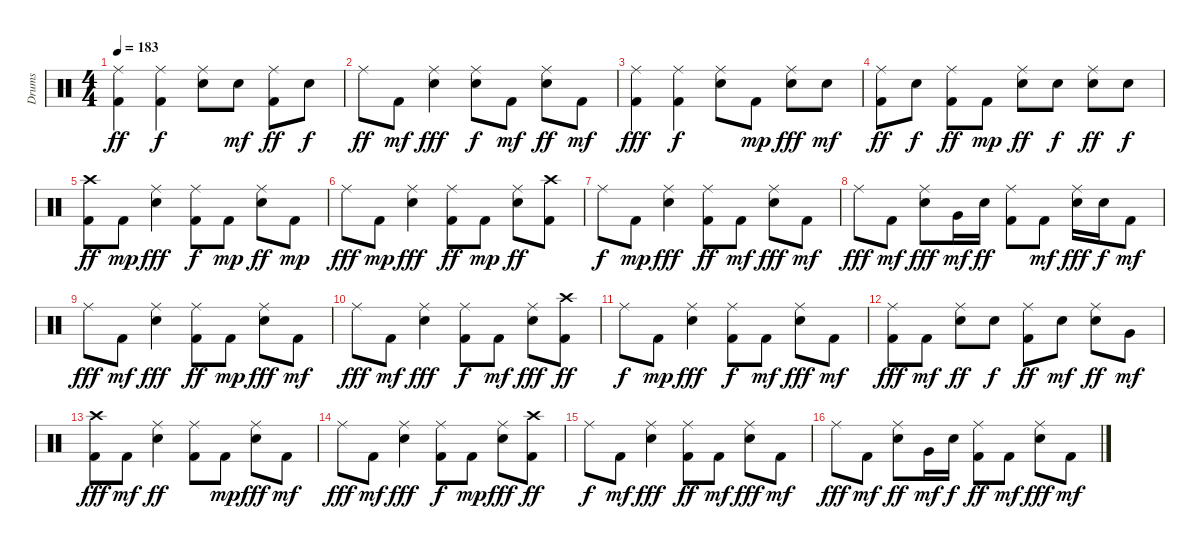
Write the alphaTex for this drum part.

\track ("Drums" "Drums") {instrument percussion}
\staff {score}
\articulation defaults
\ts (4 4)
\tempo 183
\clef neutral
\ks c
("Kick (hit) 2" "Ride (middle)").4{dy ff} ("Kick (hit) 2" "Ride (middle)").4{dy f} ("Snare (hit) 2" "Ride (middle)").8 "Snare (hit) 2".8{dy mf} ("Kick (hit) 2" "Ride (middle)").8{dy ff} "Snare (hit) 2".8{dy f} |
"Ride (middle)".8{dy ff} "Kick (hit) 2".8{dy mf} ("Snare (hit) 2" "Ride (middle)").4{dy fff} ("Snare (hit) 2" "Ride (middle)").8{dy f} "Kick (hit) 2".8{dy mf} ("Snare (hit) 2" "Ride (middle)").8{dy ff} "Kick (hit) 2".8{dy mf} |
("Kick (hit) 2" "Ride (middle)").4{dy fff} ("Kick (hit) 2" "Ride (middle)").4{dy f} ("Snare (hit) 2" "Ride (middle)").8 "Kick (hit) 2".8{dy mp} ("Snare (hit) 2" "Ride (middle)").8{dy fff} "Snare (hit) 2".8{dy mf} |
("Kick (hit) 2" "Ride (middle)").8{dy ff} "Snare (hit) 2".8{dy f} ("Kick (hit) 2" "Ride (middle)").8{dy ff} "Kick (hit) 2".8{dy mp} ("Snare (hit) 2" "Ride (middle)").8{dy ff} "Snare (hit) 2".8{dy f} ("Snare (hit) 2" "Ride (middle)").8{dy ff} "Snare (hit) 2".8{dy f} |
("Kick (hit) 2" "Crash high (hit)").8{dy ff} "Kick (hit) 2".8{dy mp} ("Snare (hit) 2" "Ride (middle)").4{dy fff} ("Kick (hit) 2" "Ride (middle)").8{dy f} "Kick (hit) 2".8{dy mp} ("Snare (hit) 2" "Ride (middle)").8{dy ff} "Kick (hit) 2".8{dy mp} |
"Ride (middle)".8{dy fff} "Kick (hit) 2".8{dy mp} ("Snare (hit) 2" "Ride (middle)").4{dy fff} ("Kick (hit) 2" "Ride (middle)").8{dy ff} "Kick (hit) 2".8{dy mp} ("Snare (hit) 2" "Ride (middle)").8{dy ff} ("Kick (hit) 2" "Crash high (hit)").8 |
"Ride (middle)".8{dy f} "Kick (hit) 2".8{dy mp} ("Snare (hit) 2" "Ride (middle)").4{dy fff} ("Kick (hit) 2" "Ride (middle)").8{dy ff} "Kick (hit) 2".8{dy mf} ("Snare (hit) 2" "Ride (middle)").8{dy fff} "Kick (hit) 2".8{dy mf} |
"Ride (middle)".8{dy fff} "Kick (hit) 2".8{dy mf} ("Snare (hit) 2" "Ride (middle)").8{dy fff} "Very Low Tom (hit)".16{dy mf} "Snare (hit) 2".16{dy ff} ("Kick (hit) 2" "Ride (middle)").8 "Kick (hit) 2".8{dy mf} ("Snare (hit) 2" "Ride (middle)").16{dy fff} "Snare (hit) 2".16{dy f} "Kick (hit) 2".8{dy mf} |
"Ride (middle)".8{dy fff} "Kick (hit) 2".8{dy mf} ("Snare (hit) 2" "Ride (middle)").4{dy fff} ("Kick (hit) 2" "Ride (middle)").8{dy ff} "Kick (hit) 2".8{dy mp} ("Snare (hit) 2" "Ride (middle)").8{dy fff} "Kick (hit) 2".8{dy mf} |
"Ride (middle)".8{dy fff} "Kick (hit) 2".8{dy mf} ("Snare (hit) 2" "Ride (middle)").4{dy fff} ("Kick (hit) 2" "Ride (middle)").8{dy f} "Kick (hit) 2".8{dy mf} ("Snare (hit) 2" "Ride (middle)").8{dy fff} ("Kick (hit) 2" "Crash high (hit)").8{dy ff} |
"Ride (middle)".8{dy f} "Kick (hit) 2".8{dy mp} ("Snare (hit) 2" "Ride (middle)").4{dy fff} ("Kick (hit) 2" "Ride (middle)").8{dy f} "Kick (hit) 2".8{dy mf} ("Snare (hit) 2" "Ride (middle)").8{dy fff} "Kick (hit) 2".8{dy mf} |
("Kick (hit) 2" "Ride (middle)").8{dy fff} "Kick (hit) 2".8{dy mf} ("Snare (hit) 2" "Ride (middle)").8{dy ff} "Snare (hit) 2".8{dy f} ("Kick (hit) 2" "Ride (middle)").8{dy ff} "Snare (hit) 2".8{dy mf} ("Snare (hit) 2" "Ride (middle)").8{dy ff} "Very Low Tom (hit)".8{dy mf} |
("Kick (hit) 2" "Crash high (hit)").8{dy fff} "Kick (hit) 2".8{dy mf} ("Snare (hit) 2" "Ride (middle)").4{dy ff} ("Kick (hit) 2" "Ride (middle)").8 "Kick (hit) 2".8{dy mp} ("Snare (hit) 2" "Ride (middle)").8{dy fff} "Kick (hit) 2".8{dy mf} |
"Ride (middle)".8{dy fff} "Kick (hit) 2".8{dy mf} ("Snare (hit) 2" "Ride (middle)").4{dy fff} ("Kick (hit) 2" "Ride (middle)").8{dy f} "Kick (hit) 2".8{dy mp} ("Snare (hit) 2" "Ride (middle)").8{dy fff} ("Kick (hit) 2" "Crash high (hit)").8{dy ff} |
"Ride (middle)".8{dy f} "Kick (hit) 2".8{dy mf} ("Snare (hit) 2" "Ride (middle)").4{dy fff} ("Kick (hit) 2" "Ride (middle)").8{dy ff} "Kick (hit) 2".8{dy mf} ("Snare (hit) 2" "Ride (middle)").8{dy fff} "Kick (hit) 2".8{dy mf} |
"Ride (middle)".8{dy fff} "Kick (hit) 2".8{dy mf} ("Snare (hit) 2" "Ride (middle)").8{dy ff} "Very Low Tom (hit)".16{dy mf} "Snare (hit) 2".16{dy f} ("Kick (hit) 2" "Ride (middle)").8{dy ff} "Kick (hit) 2".8{dy mf} ("Snare (hit) 2" "Ride (middle)").8{dy fff} "Kick (hit) 2".8{dy mf}
